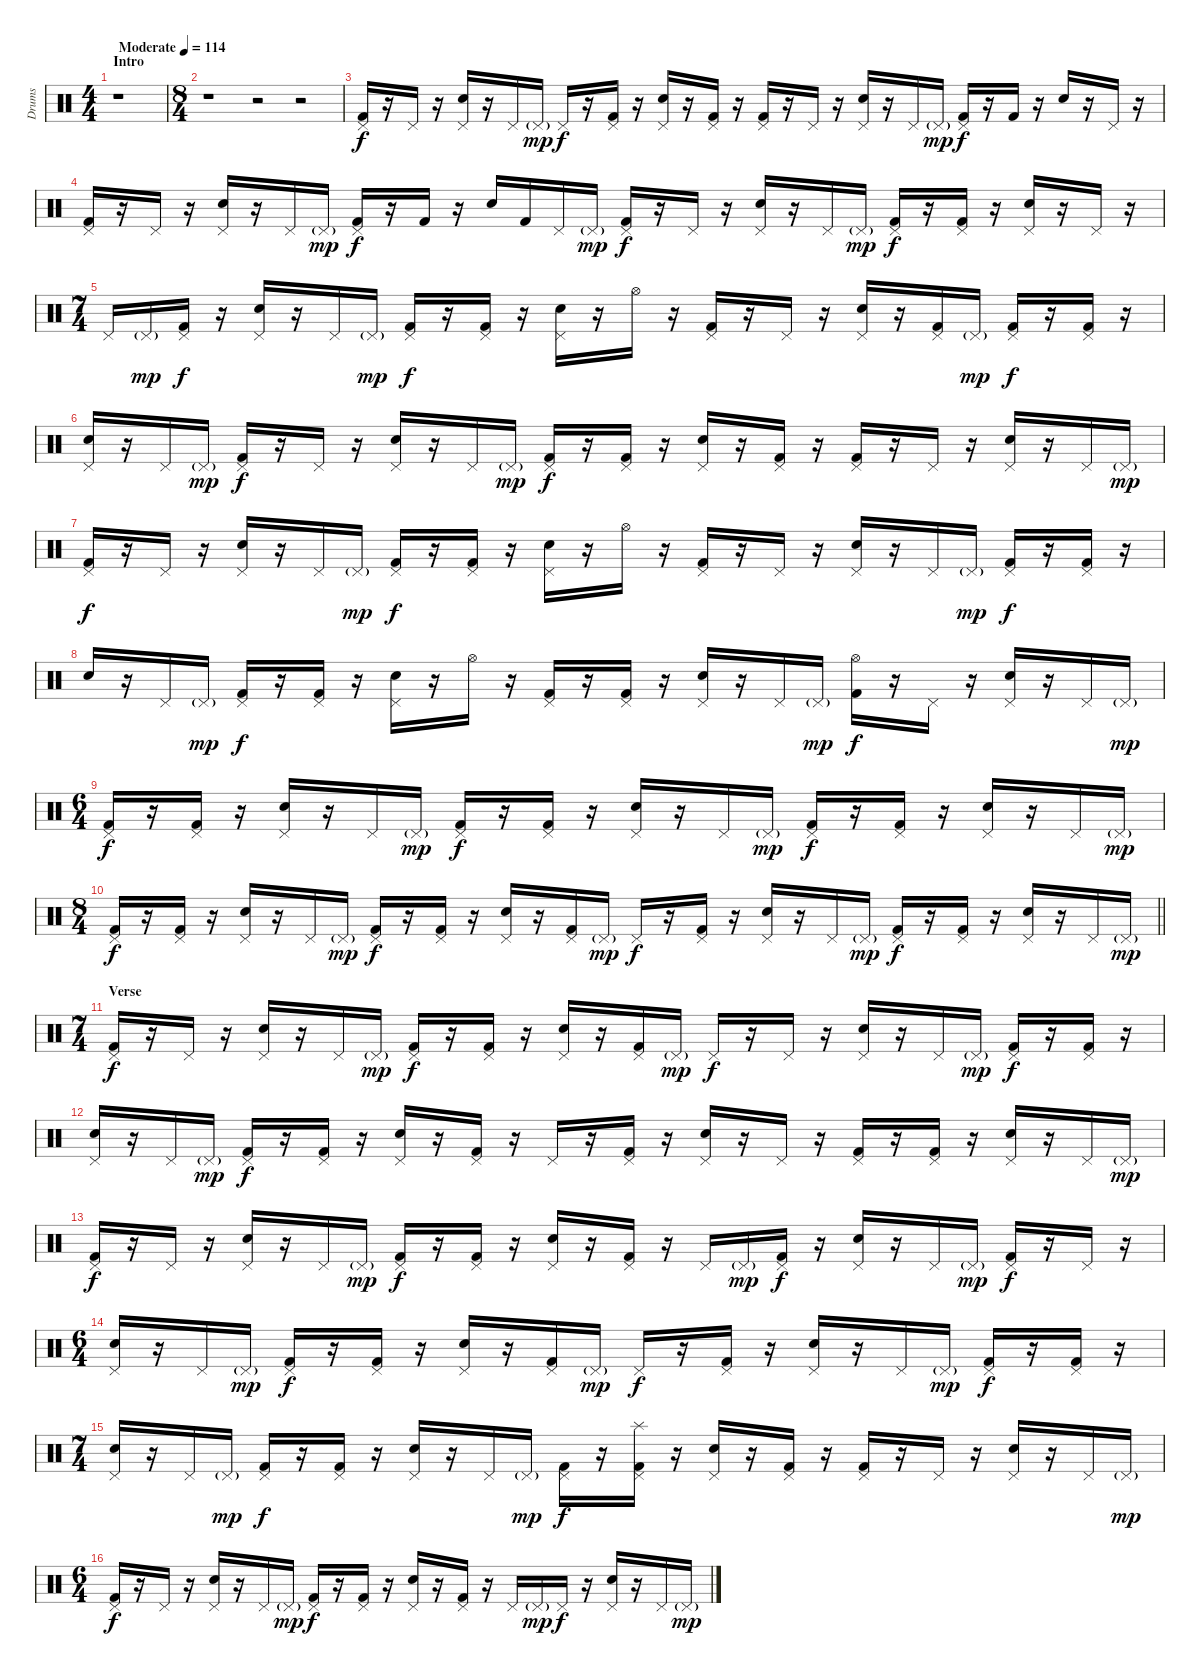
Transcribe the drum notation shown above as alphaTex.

\track ("Drums" "Drums") {instrument percussion}
\staff {score}
\articulation defaults
\ts (4 4)
\section ("" "Intro")
\tempo (114 "Moderate")
\clef neutral
\ks c
r.1{dy f} |
\ts (8 4)
r.1 r.2 r.2 |
("Pedal Hi-Hat (hit)" "Kick (hit) 2").16 r.16 "Pedal Hi-Hat (hit)".16 r.16 ("Pedal Hi-Hat (hit)" "Snare (hit) 2").16 r.16 "Pedal Hi-Hat (hit)".16 "Pedal Hi-Hat (hit)"{g}.16{dy mp} "Pedal Hi-Hat (hit)".16{dy f} r.16 ("Pedal Hi-Hat (hit)" "Kick (hit) 2").16 r.16 ("Pedal Hi-Hat (hit)" "Snare (hit) 2").16 r.16 ("Pedal Hi-Hat (hit)" "Kick (hit) 2").16 r.16 ("Pedal Hi-Hat (hit)" "Kick (hit) 2").16 r.16 "Pedal Hi-Hat (hit)".16 r.16 ("Pedal Hi-Hat (hit)" "Snare (hit) 2").16 r.16 "Pedal Hi-Hat (hit)".16 "Pedal Hi-Hat (hit)"{g}.16{dy mp} ("Pedal Hi-Hat (hit)" "Kick (hit) 2").16{dy f} r.16 "Kick (hit) 2".16 r.16 "Snare (hit) 2".16 r.16 "Pedal Hi-Hat (hit)".16 r.16 |
("Pedal Hi-Hat (hit)" "Kick (hit) 2").16 r.16 "Pedal Hi-Hat (hit)".16 r.16 ("Pedal Hi-Hat (hit)" "Snare (hit) 2").16 r.16 "Pedal Hi-Hat (hit)".16 "Pedal Hi-Hat (hit)"{g}.16{dy mp} ("Pedal Hi-Hat (hit)" "Kick (hit) 2").16{dy f} r.16 "Kick (hit) 2".16 r.16 "Snare (hit) 2".16 "Kick (hit) 2".16 "Pedal Hi-Hat (hit)".16 "Pedal Hi-Hat (hit)"{g}.16{dy mp} ("Pedal Hi-Hat (hit)" "Kick (hit) 2").16{dy f} r.16 "Pedal Hi-Hat (hit)".16 r.16 ("Pedal Hi-Hat (hit)" "Snare (hit) 2").16 r.16 "Pedal Hi-Hat (hit)".16 "Pedal Hi-Hat (hit)"{g}.16{dy mp} ("Pedal Hi-Hat (hit)" "Kick (hit) 2").16{dy f} r.16 ("Pedal Hi-Hat (hit)" "Kick (hit) 2").16 r.16 ("Pedal Hi-Hat (hit)" "Snare (hit) 2").16 r.16 "Pedal Hi-Hat (hit)".16 r.16 |
\ts (7 4)
"Pedal Hi-Hat (hit)".16 "Pedal Hi-Hat (hit)"{g}.16{dy mp} ("Pedal Hi-Hat (hit)" "Kick (hit) 2").16{dy f} r.16 ("Pedal Hi-Hat (hit)" "Snare (hit) 2").16 r.16 "Pedal Hi-Hat (hit)".16 "Pedal Hi-Hat (hit)"{g}.16{dy mp} ("Pedal Hi-Hat (hit)" "Kick (hit) 2").16{dy f} r.16 ("Pedal Hi-Hat (hit)" "Kick (hit) 2").16 r.16 ("Pedal Hi-Hat (hit)" "Snare (hit) 2").16 r.16 "Hi-Hat (open)".16 r.16 ("Pedal Hi-Hat (hit)" "Kick (hit) 2").16 r.16 "Pedal Hi-Hat (hit)".16 r.16 ("Pedal Hi-Hat (hit)" "Snare (hit) 2").16 r.16 ("Pedal Hi-Hat (hit)" "Kick (hit) 2").16 "Pedal Hi-Hat (hit)"{g}.16{dy mp} ("Pedal Hi-Hat (hit)" "Kick (hit) 2").16{dy f} r.16 ("Pedal Hi-Hat (hit)" "Kick (hit) 2").16 r.16 |
("Pedal Hi-Hat (hit)" "Snare (hit) 2").16 r.16 "Pedal Hi-Hat (hit)".16 "Pedal Hi-Hat (hit)"{g}.16{dy mp} ("Pedal Hi-Hat (hit)" "Kick (hit) 2").16{dy f} r.16 "Pedal Hi-Hat (hit)".16 r.16 ("Pedal Hi-Hat (hit)" "Snare (hit) 2").16 r.16 "Pedal Hi-Hat (hit)".16 "Pedal Hi-Hat (hit)"{g}.16{dy mp} ("Pedal Hi-Hat (hit)" "Kick (hit) 2").16{dy f} r.16 ("Pedal Hi-Hat (hit)" "Kick (hit) 2").16 r.16 ("Pedal Hi-Hat (hit)" "Snare (hit) 2").16 r.16 ("Pedal Hi-Hat (hit)" "Kick (hit) 2").16 r.16 ("Pedal Hi-Hat (hit)" "Kick (hit) 2").16 r.16 "Pedal Hi-Hat (hit)".16 r.16 ("Pedal Hi-Hat (hit)" "Snare (hit) 2").16 r.16 "Pedal Hi-Hat (hit)".16 "Pedal Hi-Hat (hit)"{g}.16{dy mp} |
("Pedal Hi-Hat (hit)" "Kick (hit) 2").16{dy f} r.16 "Pedal Hi-Hat (hit)".16 r.16 ("Pedal Hi-Hat (hit)" "Snare (hit) 2").16 r.16 "Pedal Hi-Hat (hit)".16 "Pedal Hi-Hat (hit)"{g}.16{dy mp} ("Pedal Hi-Hat (hit)" "Kick (hit) 2").16{dy f} r.16 ("Pedal Hi-Hat (hit)" "Kick (hit) 2").16 r.16 ("Pedal Hi-Hat (hit)" "Snare (hit) 2").16 r.16 "Hi-Hat (open)".16 r.16 ("Pedal Hi-Hat (hit)" "Kick (hit) 2").16 r.16 "Pedal Hi-Hat (hit)".16 r.16 ("Pedal Hi-Hat (hit)" "Snare (hit) 2").16 r.16 "Pedal Hi-Hat (hit)".16 "Pedal Hi-Hat (hit)"{g}.16{dy mp} ("Pedal Hi-Hat (hit)" "Kick (hit) 2").16{dy f} r.16 ("Pedal Hi-Hat (hit)" "Kick (hit) 2").16 r.16 |
"Snare (hit) 2".16 r.16 "Pedal Hi-Hat (hit)".16 "Pedal Hi-Hat (hit)"{g}.16{dy mp} ("Pedal Hi-Hat (hit)" "Kick (hit) 2").16{dy f} r.16 ("Pedal Hi-Hat (hit)" "Kick (hit) 2").16 r.16 ("Pedal Hi-Hat (hit)" "Snare (hit) 2").16 r.16 "Hi-Hat (open)".16 r.16 ("Pedal Hi-Hat (hit)" "Kick (hit) 2").16 r.16 ("Pedal Hi-Hat (hit)" "Kick (hit) 2").16 r.16 ("Pedal Hi-Hat (hit)" "Snare (hit) 2").16 r.16 "Pedal Hi-Hat (hit)".16 "Pedal Hi-Hat (hit)"{g}.16{dy mp} ("Hi-Hat (open)" "Kick (hit) 2").16{dy f} r.16 "Pedal Hi-Hat (hit)".16 r.16 ("Pedal Hi-Hat (hit)" "Snare (hit) 2").16 r.16 "Pedal Hi-Hat (hit)".16 "Pedal Hi-Hat (hit)"{g}.16{dy mp} |
\ts (6 4)
("Pedal Hi-Hat (hit)" "Kick (hit) 2").16{dy f} r.16 ("Pedal Hi-Hat (hit)" "Kick (hit) 2").16 r.16 ("Pedal Hi-Hat (hit)" "Snare (hit) 2").16 r.16 "Pedal Hi-Hat (hit)".16 "Pedal Hi-Hat (hit)"{g}.16{dy mp} ("Pedal Hi-Hat (hit)" "Kick (hit) 2").16{dy f} r.16 ("Pedal Hi-Hat (hit)" "Kick (hit) 2").16 r.16 ("Pedal Hi-Hat (hit)" "Snare (hit) 2").16 r.16 "Pedal Hi-Hat (hit)".16 "Pedal Hi-Hat (hit)"{g}.16{dy mp} ("Pedal Hi-Hat (hit)" "Kick (hit) 2").16{dy f} r.16 ("Pedal Hi-Hat (hit)" "Kick (hit) 2").16 r.16 ("Pedal Hi-Hat (hit)" "Snare (hit) 2").16 r.16 "Pedal Hi-Hat (hit)".16 "Pedal Hi-Hat (hit)"{g}.16{dy mp} |
\ts (8 4)
\barLineRight lightlight
("Pedal Hi-Hat (hit)" "Kick (hit) 2").16{dy f} r.16 ("Pedal Hi-Hat (hit)" "Kick (hit) 2").16 r.16 ("Pedal Hi-Hat (hit)" "Snare (hit) 2").16 r.16 "Pedal Hi-Hat (hit)".16 "Pedal Hi-Hat (hit)"{g}.16{dy mp} ("Pedal Hi-Hat (hit)" "Kick (hit) 2").16{dy f} r.16 ("Pedal Hi-Hat (hit)" "Kick (hit) 2").16 r.16 ("Pedal Hi-Hat (hit)" "Snare (hit) 2").16 r.16 ("Pedal Hi-Hat (hit)" "Kick (hit) 2").16 "Pedal Hi-Hat (hit)"{g}.16{dy mp} "Pedal Hi-Hat (hit)".16{dy f} r.16 ("Pedal Hi-Hat (hit)" "Kick (hit) 2").16 r.16 ("Pedal Hi-Hat (hit)" "Snare (hit) 2").16 r.16 "Pedal Hi-Hat (hit)".16 "Pedal Hi-Hat (hit)"{g}.16{dy mp} ("Pedal Hi-Hat (hit)" "Kick (hit) 2").16{dy f} r.16 ("Pedal Hi-Hat (hit)" "Kick (hit) 2").16 r.16 ("Pedal Hi-Hat (hit)" "Snare (hit) 2").16 r.16 "Pedal Hi-Hat (hit)".16 "Pedal Hi-Hat (hit)"{g}.16{dy mp} |
\ts (7 4)
\section ("" "Verse")
("Pedal Hi-Hat (hit)" "Kick (hit) 2").16{dy f} r.16 "Pedal Hi-Hat (hit)".16 r.16 ("Pedal Hi-Hat (hit)" "Snare (hit) 2").16 r.16 "Pedal Hi-Hat (hit)".16 "Pedal Hi-Hat (hit)"{g}.16{dy mp} ("Pedal Hi-Hat (hit)" "Kick (hit) 2").16{dy f} r.16 ("Pedal Hi-Hat (hit)" "Kick (hit) 2").16 r.16 ("Pedal Hi-Hat (hit)" "Snare (hit) 2").16 r.16 ("Pedal Hi-Hat (hit)" "Kick (hit) 2").16 "Pedal Hi-Hat (hit)"{g}.16{dy mp} "Pedal Hi-Hat (hit)".16{dy f} r.16 "Pedal Hi-Hat (hit)".16 r.16 ("Pedal Hi-Hat (hit)" "Snare (hit) 2").16 r.16 "Pedal Hi-Hat (hit)".16 "Pedal Hi-Hat (hit)"{g}.16{dy mp} ("Pedal Hi-Hat (hit)" "Kick (hit) 2").16{dy f} r.16 ("Pedal Hi-Hat (hit)" "Kick (hit) 2").16 r.16 |
("Pedal Hi-Hat (hit)" "Snare (hit) 2").16 r.16 "Pedal Hi-Hat (hit)".16 "Pedal Hi-Hat (hit)"{g}.16{dy mp} ("Pedal Hi-Hat (hit)" "Kick (hit) 2").16{dy f} r.16 ("Pedal Hi-Hat (hit)" "Kick (hit) 2").16 r.16 ("Pedal Hi-Hat (hit)" "Snare (hit) 2").16 r.16 ("Pedal Hi-Hat (hit)" "Kick (hit) 2").16 r.16 "Pedal Hi-Hat (hit)".16 r.16 ("Pedal Hi-Hat (hit)" "Kick (hit) 2").16 r.16 ("Pedal Hi-Hat (hit)" "Snare (hit) 2").16 r.16 "Pedal Hi-Hat (hit)".16 r.16 ("Pedal Hi-Hat (hit)" "Kick (hit) 2").16 r.16 ("Pedal Hi-Hat (hit)" "Kick (hit) 2").16 r.16 ("Pedal Hi-Hat (hit)" "Snare (hit) 2").16 r.16 "Pedal Hi-Hat (hit)".16 "Pedal Hi-Hat (hit)"{g}.16{dy mp} |
("Pedal Hi-Hat (hit)" "Kick (hit) 2").16{dy f} r.16 "Pedal Hi-Hat (hit)".16 r.16 ("Pedal Hi-Hat (hit)" "Snare (hit) 2").16 r.16 "Pedal Hi-Hat (hit)".16 "Pedal Hi-Hat (hit)"{g}.16{dy mp} ("Pedal Hi-Hat (hit)" "Kick (hit) 2").16{dy f} r.16 ("Pedal Hi-Hat (hit)" "Kick (hit) 2").16 r.16 ("Pedal Hi-Hat (hit)" "Snare (hit) 2").16 r.16 ("Pedal Hi-Hat (hit)" "Kick (hit) 2").16 r.16 "Pedal Hi-Hat (hit)".16 "Pedal Hi-Hat (hit)"{g}.16{dy mp} ("Pedal Hi-Hat (hit)" "Kick (hit) 2").16{dy f} r.16 ("Pedal Hi-Hat (hit)" "Snare (hit) 2").16 r.16 "Pedal Hi-Hat (hit)".16 "Pedal Hi-Hat (hit)"{g}.16{dy mp} ("Pedal Hi-Hat (hit)" "Kick (hit) 2").16{dy f} r.16 "Pedal Hi-Hat (hit)".16 r.16 |
\ts (6 4)
("Pedal Hi-Hat (hit)" "Snare (hit) 2").16 r.16 "Pedal Hi-Hat (hit)".16 "Pedal Hi-Hat (hit)"{g}.16{dy mp} ("Pedal Hi-Hat (hit)" "Kick (hit) 2").16{dy f} r.16 ("Pedal Hi-Hat (hit)" "Kick (hit) 2").16 r.16 ("Pedal Hi-Hat (hit)" "Snare (hit) 2").16 r.16 ("Pedal Hi-Hat (hit)" "Kick (hit) 2").16 "Pedal Hi-Hat (hit)"{g}.16{dy mp} "Pedal Hi-Hat (hit)".16{dy f} r.16 ("Pedal Hi-Hat (hit)" "Kick (hit) 2").16 r.16 ("Pedal Hi-Hat (hit)" "Snare (hit) 2").16 r.16 "Pedal Hi-Hat (hit)".16 "Pedal Hi-Hat (hit)"{g}.16{dy mp} ("Pedal Hi-Hat (hit)" "Kick (hit) 2").16{dy f} r.16 ("Pedal Hi-Hat (hit)" "Kick (hit) 2").16 r.16 |
\ts (7 4)
("Pedal Hi-Hat (hit)" "Snare (hit) 2").16 r.16 "Pedal Hi-Hat (hit)".16 "Pedal Hi-Hat (hit)"{g}.16{dy mp} ("Pedal Hi-Hat (hit)" "Kick (hit) 2").16{dy f} r.16 ("Pedal Hi-Hat (hit)" "Kick (hit) 2").16 r.16 ("Pedal Hi-Hat (hit)" "Snare (hit) 2").16 r.16 "Pedal Hi-Hat (hit)".16 "Pedal Hi-Hat (hit)"{g}.16{dy mp} ("Pedal Hi-Hat (hit)" "Kick (hit) 2").16{dy f} r.16 ("Splash (hit)" "Pedal Hi-Hat (hit)" "Kick (hit) 2").16 r.16 ("Pedal Hi-Hat (hit)" "Snare (hit) 2").16 r.16 ("Pedal Hi-Hat (hit)" "Kick (hit) 2").16 r.16 ("Pedal Hi-Hat (hit)" "Kick (hit) 2").16 r.16 "Pedal Hi-Hat (hit)".16 r.16 ("Pedal Hi-Hat (hit)" "Snare (hit) 2").16 r.16 "Pedal Hi-Hat (hit)".16 "Pedal Hi-Hat (hit)"{g}.16{dy mp} |
\ts (6 4)
("Pedal Hi-Hat (hit)" "Kick (hit) 2").16{dy f} r.16 "Pedal Hi-Hat (hit)".16 r.16 ("Pedal Hi-Hat (hit)" "Snare (hit) 2").16 r.16 "Pedal Hi-Hat (hit)".16 "Pedal Hi-Hat (hit)"{g}.16{dy mp} ("Pedal Hi-Hat (hit)" "Kick (hit) 2").16{dy f} r.16 ("Pedal Hi-Hat (hit)" "Kick (hit) 2").16 r.16 ("Pedal Hi-Hat (hit)" "Snare (hit) 2").16 r.16 ("Pedal Hi-Hat (hit)" "Kick (hit) 2").16 r.16 "Pedal Hi-Hat (hit)".16 "Pedal Hi-Hat (hit)"{g}.16{dy mp} "Pedal Hi-Hat (hit)".16{dy f} r.16 ("Pedal Hi-Hat (hit)" "Snare (hit) 2").16 r.16 "Pedal Hi-Hat (hit)".16 "Pedal Hi-Hat (hit)"{g}.16{dy mp}
